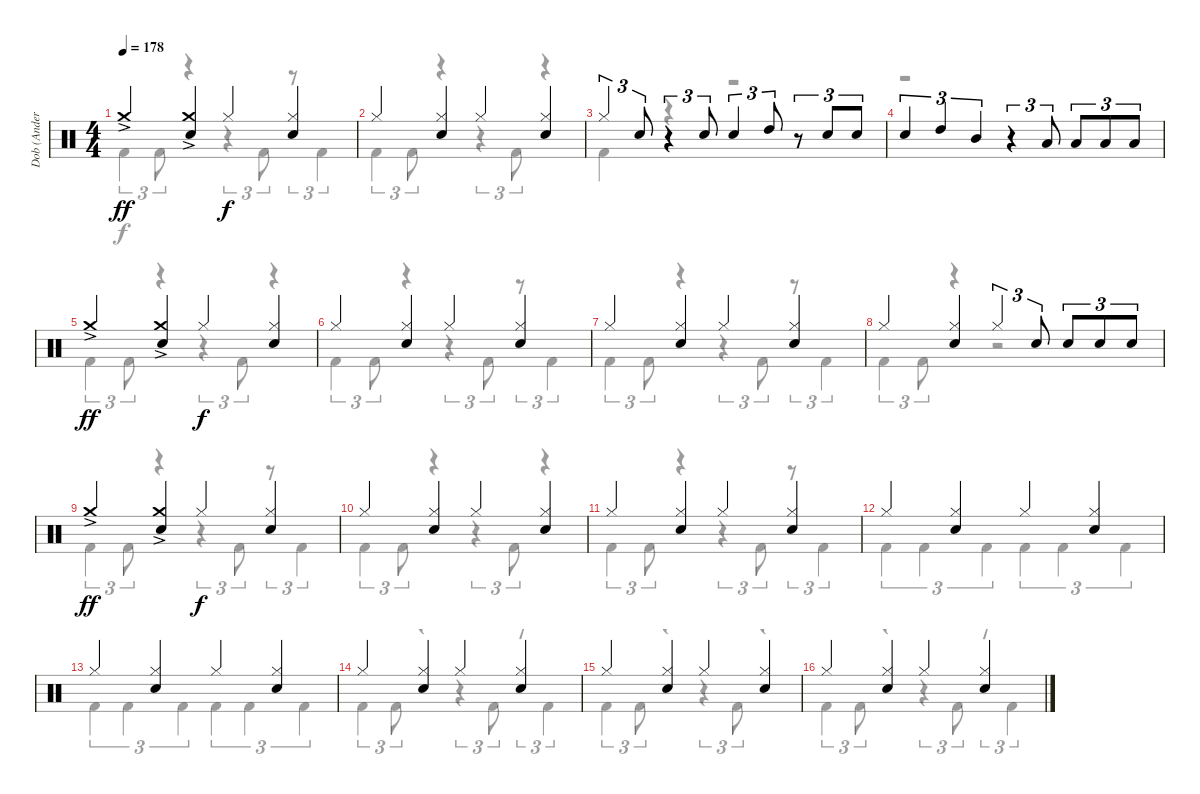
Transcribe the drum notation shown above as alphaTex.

\track ("Dob (Anders Johansson)" "Dob (Ander") {instrument percussion}
\staff {score}
\articulation defaults
\voice
\ts (4 4)
\tempo 178
\clef neutral
\ks c "Crash medium (hit)"{ac}.4{dy ff}
("Crash medium (hit)"{ac} "Electric Snare (hit)").4 "Hi-Hat (closed)".4{dy f} ("Hi-Hat (closed)" "Electric Snare (hit)").4 |
"Hi-Hat (closed)".4 ("Hi-Hat (closed)" "Electric Snare (hit)").4 "Hi-Hat (closed)".4 ("Hi-Hat (closed)" "Electric Snare (hit)").4 |
"Hi-Hat (closed)".4{tu (3 2)} "Electric Snare (hit)".8{tu (3 2)} r.4{tu (3 2)} "Electric Snare (hit)".8{tu (3 2)} "Electric Snare (hit)".4{tu (3 2)} "High Tom (hit)".8{tu (3 2)} r.8{tu (3 2)} "Electric Snare (hit)".8{tu (3 2)} "Electric Snare (hit)".8{tu (3 2)} |
"Electric Snare (hit)".4{tu (3 2)} "High Tom (hit)".4{tu (3 2)} "Mid Tom (hit)".4{tu (3 2)} r.4{tu (3 2)} "Low Tom (hit)".8{tu (3 2)} "Low Tom (hit)".8{tu (3 2)} "Low Tom (hit)".8{tu (3 2)} "Low Tom (hit)".8{tu (3 2)} |
"Crash medium (hit)"{ac}.4{dy ff} ("Crash medium (hit)"{ac} "Electric Snare (hit)").4 "Hi-Hat (closed)".4{dy f} ("Hi-Hat (closed)" "Electric Snare (hit)").4 |
"Hi-Hat (closed)".4 ("Hi-Hat (closed)" "Electric Snare (hit)").4 "Hi-Hat (closed)".4 ("Hi-Hat (closed)" "Electric Snare (hit)").4 |
"Hi-Hat (closed)".4 ("Hi-Hat (closed)" "Electric Snare (hit)").4 "Hi-Hat (closed)".4 ("Hi-Hat (closed)" "Electric Snare (hit)").4 |
"Hi-Hat (closed)".4 ("Hi-Hat (closed)" "Electric Snare (hit)").4 "Hi-Hat (closed)".4{tu (3 2)} "Electric Snare (hit)".8{tu (3 2)} "Electric Snare (hit)".8{tu (3 2)} "Electric Snare (hit)".8{tu (3 2)} "Electric Snare (hit)".8{tu (3 2)} |
"Crash medium (hit)"{ac}.4{dy ff} ("Crash medium (hit)"{ac} "Electric Snare (hit)").4 "Hi-Hat (closed)".4{dy f} ("Hi-Hat (closed)" "Electric Snare (hit)").4 |
"Hi-Hat (closed)".4 ("Hi-Hat (closed)" "Electric Snare (hit)").4 "Hi-Hat (closed)".4 ("Hi-Hat (closed)" "Electric Snare (hit)").4 |
"Hi-Hat (closed)".4 ("Hi-Hat (closed)" "Electric Snare (hit)").4 "Hi-Hat (closed)".4 ("Hi-Hat (closed)" "Electric Snare (hit)").4 |
"Hi-Hat (closed)".4 ("Hi-Hat (closed)" "Electric Snare (hit)").4 "Hi-Hat (closed)".4 ("Hi-Hat (closed)" "Electric Snare (hit)").4 |
"Hi-Hat (closed)".4 ("Hi-Hat (closed)" "Electric Snare (hit)").4 "Hi-Hat (closed)".4 ("Hi-Hat (closed)" "Electric Snare (hit)").4 |
"Hi-Hat (closed)".4 ("Hi-Hat (closed)" "Electric Snare (hit)").4 "Hi-Hat (closed)".4 ("Hi-Hat (closed)" "Electric Snare (hit)").4 |
"Hi-Hat (closed)".4 ("Hi-Hat (closed)" "Electric Snare (hit)").4 "Hi-Hat (closed)".4 ("Hi-Hat (closed)" "Electric Snare (hit)").4 |
"Hi-Hat (closed)".4 ("Hi-Hat (closed)" "Electric Snare (hit)").4 "Hi-Hat (closed)".4 ("Hi-Hat (closed)" "Electric Snare (hit)").4
\voice
\clef neutral
\ottava regular
\simile none
\ks c "Kick (hit) 2".4{tu (3 2) dy f} "Kick (hit) 2".8{tu (3 2)}
r.4 r.4{tu (3 2)} "Kick (hit) 2".8{tu (3 2)} r.8{tu (3 2)} "Kick (hit) 2".4{tu (3 2)} |
"Kick (hit) 2".4{tu (3 2)} "Kick (hit) 2".8{tu (3 2)} r.4 r.4{tu (3 2)} "Kick (hit) 2".8{tu (3 2)} r.4 |
"Kick (hit) 2".4 r.4 r.2 |
r.1 |
"Kick (hit) 2".4{tu (3 2)} "Kick (hit) 2".8{tu (3 2)} r.4 r.4{tu (3 2)} "Kick (hit) 2".8{tu (3 2)} r.4 |
"Kick (hit) 2".4{tu (3 2)} "Kick (hit) 2".8{tu (3 2)} r.4 r.4{tu (3 2)} "Kick (hit) 2".8{tu (3 2)} r.8{tu (3 2)} "Kick (hit) 2".4{tu (3 2)} |
"Kick (hit) 2".4{tu (3 2)} "Kick (hit) 2".8{tu (3 2)} r.4 r.4{tu (3 2)} "Kick (hit) 2".8{tu (3 2)} r.8{tu (3 2)} "Kick (hit) 2".4{tu (3 2)} |
"Kick (hit) 2".4{tu (3 2)} "Kick (hit) 2".8{tu (3 2)} r.4 r.2 |
"Kick (hit) 2".4{tu (3 2)} "Kick (hit) 2".8{tu (3 2)} r.4 r.4{tu (3 2)} "Kick (hit) 2".8{tu (3 2)} r.8{tu (3 2)} "Kick (hit) 2".4{tu (3 2)} |
"Kick (hit) 2".4{tu (3 2)} "Kick (hit) 2".8{tu (3 2)} r.4 r.4{tu (3 2)} "Kick (hit) 2".8{tu (3 2)} r.4 |
"Kick (hit) 2".4{tu (3 2)} "Kick (hit) 2".8{tu (3 2)} r.4 r.4{tu (3 2)} "Kick (hit) 2".8{tu (3 2)} r.8{tu (3 2)} "Kick (hit) 2".4{tu (3 2)} |
"Kick (hit) 2".4{tu (3 2)} "Kick (hit) 2".4{tu (3 2)} "Kick (hit) 2".4{tu (3 2)} "Kick (hit) 2".4{tu (3 2)} "Kick (hit) 2".4{tu (3 2)} "Kick (hit) 2".4{tu (3 2)} |
"Kick (hit) 2".4{tu (3 2)} "Kick (hit) 2".4{tu (3 2)} "Kick (hit) 2".4{tu (3 2)} "Kick (hit) 2".4{tu (3 2)} "Kick (hit) 2".4{tu (3 2)} "Kick (hit) 2".4{tu (3 2)} |
"Kick (hit) 2".4{tu (3 2)} "Kick (hit) 2".8{tu (3 2)} r.4 r.4{tu (3 2)} "Kick (hit) 2".8{tu (3 2)} r.8{tu (3 2)} "Kick (hit) 2".4{tu (3 2)} |
"Kick (hit) 2".4{tu (3 2)} "Kick (hit) 2".8{tu (3 2)} r.4 r.4{tu (3 2)} "Kick (hit) 2".8{tu (3 2)} r.4 |
"Kick (hit) 2".4{tu (3 2)} "Kick (hit) 2".8{tu (3 2)} r.4 r.4{tu (3 2)} "Kick (hit) 2".8{tu (3 2)} r.8{tu (3 2)} "Kick (hit) 2".4{tu (3 2)}
